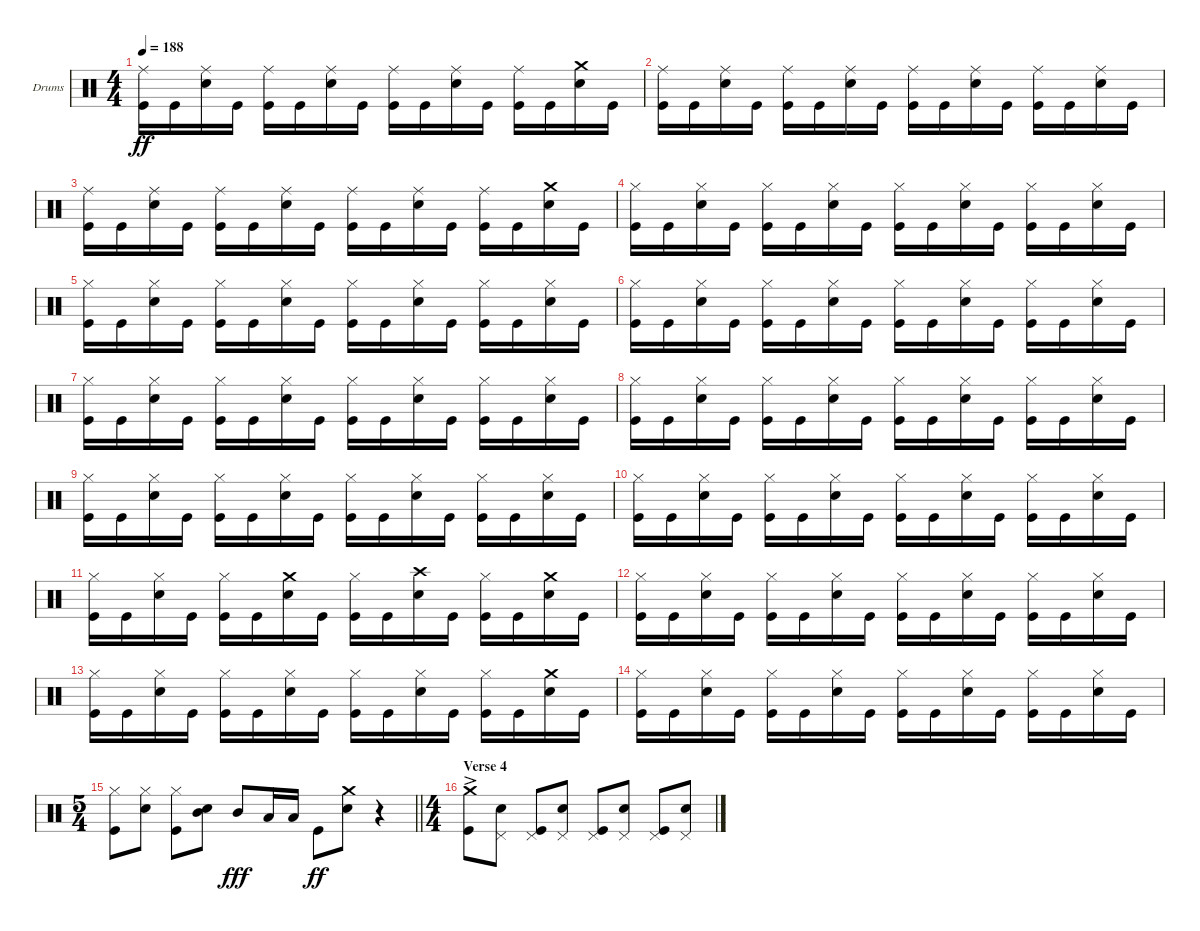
\bracketExtendMode groupsimilarinstruments
\firstSystemTrackNameOrientation horizontal
\otherSystemsTrackNameOrientation horizontal
\track ("Drums" "Drums") {instrument percussion}
\staff {score}
\articulation defaults
\ts (4 4)
\tempo 188
\clef neutral
\ks c
("Kick (hit)" "Ride (middle)").16{dy ff} "Kick (hit)".16 ("Snare (hit) 2" "Ride (middle)").16 "Kick (hit)".16 ("Kick (hit)" "Ride (middle)").16 "Kick (hit)".16 ("Snare (hit) 2" "Ride (middle)").16 "Kick (hit)".16 ("Kick (hit)" "Ride (middle)").16 "Kick (hit)".16 ("Snare (hit) 2" "Ride (middle)").16 "Kick (hit)".16 ("Kick (hit)" "Ride (middle)").16 "Kick (hit)".16 ("Snare (hit) 2" "Crash medium (hit)").16 "Kick (hit)".16 |
("Kick (hit)" "Ride (middle)").16 "Kick (hit)".16 ("Snare (hit) 2" "Ride (middle)").16 "Kick (hit)".16 ("Kick (hit)" "Ride (middle)").16 "Kick (hit)".16 ("Snare (hit) 2" "Ride (middle)").16 "Kick (hit)".16 ("Kick (hit)" "Ride (middle)").16 "Kick (hit)".16 ("Snare (hit) 2" "Ride (middle)").16 "Kick (hit)".16 ("Kick (hit)" "Ride (middle)").16 "Kick (hit)".16 ("Snare (hit) 2" "Ride (middle)").16 "Kick (hit)".16 |
("Kick (hit)" "Ride (middle)").16 "Kick (hit)".16 ("Snare (hit) 2" "Ride (middle)").16 "Kick (hit)".16 ("Kick (hit)" "Ride (middle)").16 "Kick (hit)".16 ("Snare (hit) 2" "Ride (middle)").16 "Kick (hit)".16 ("Kick (hit)" "Ride (middle)").16 "Kick (hit)".16 ("Snare (hit) 2" "Ride (middle)").16 "Kick (hit)".16 ("Kick (hit)" "Ride (middle)").16 "Kick (hit)".16 ("Snare (hit) 2" "Crash medium (hit)").16 "Kick (hit)".16 |
("Kick (hit)" "Hi-Hat (closed)").16 "Kick (hit)".16 ("Snare (hit) 2" "Hi-Hat (closed)").16 "Kick (hit)".16 ("Kick (hit)" "Hi-Hat (closed)").16 "Kick (hit)".16 ("Snare (hit) 2" "Hi-Hat (closed)").16 "Kick (hit)".16 ("Kick (hit)" "Hi-Hat (closed)").16 "Kick (hit)".16 ("Snare (hit) 2" "Hi-Hat (closed)").16 "Kick (hit)".16 ("Kick (hit)" "Hi-Hat (closed)").16 "Kick (hit)".16 ("Snare (hit) 2" "Hi-Hat (closed)").16 "Kick (hit)".16 |
("Kick (hit)" "Hi-Hat (closed)").16 "Kick (hit)".16 ("Snare (hit) 2" "Hi-Hat (closed)").16 "Kick (hit)".16 ("Kick (hit)" "Hi-Hat (closed)").16 "Kick (hit)".16 ("Snare (hit) 2" "Hi-Hat (closed)").16 "Kick (hit)".16 ("Kick (hit)" "Hi-Hat (closed)").16 "Kick (hit)".16 ("Snare (hit) 2" "Hi-Hat (closed)").16 "Kick (hit)".16 ("Kick (hit)" "Hi-Hat (closed)").16 "Kick (hit)".16 ("Snare (hit) 2" "Hi-Hat (closed)").16 "Kick (hit)".16 |
("Kick (hit)" "Hi-Hat (closed)").16 "Kick (hit)".16 ("Snare (hit) 2" "Hi-Hat (closed)").16 "Kick (hit)".16 ("Kick (hit)" "Hi-Hat (closed)").16 "Kick (hit)".16 ("Snare (hit) 2" "Hi-Hat (closed)").16 "Kick (hit)".16 ("Kick (hit)" "Hi-Hat (closed)").16 "Kick (hit)".16 ("Snare (hit) 2" "Hi-Hat (closed)").16 "Kick (hit)".16 ("Kick (hit)" "Hi-Hat (closed)").16 "Kick (hit)".16 ("Snare (hit) 2" "Hi-Hat (closed)").16 "Kick (hit)".16 |
("Kick (hit)" "Hi-Hat (closed)").16 "Kick (hit)".16 ("Snare (hit) 2" "Hi-Hat (closed)").16 "Kick (hit)".16 ("Kick (hit)" "Hi-Hat (closed)").16 "Kick (hit)".16 ("Snare (hit) 2" "Hi-Hat (closed)").16 "Kick (hit)".16 ("Kick (hit)" "Hi-Hat (closed)").16 "Kick (hit)".16 ("Snare (hit) 2" "Hi-Hat (closed)").16 "Kick (hit)".16 ("Kick (hit)" "Hi-Hat (closed)").16 "Kick (hit)".16 ("Snare (hit) 2" "Hi-Hat (closed)").16 "Kick (hit)".16 |
("Kick (hit)" "Hi-Hat (closed)").16 "Kick (hit)".16 ("Snare (hit) 2" "Hi-Hat (closed)").16 "Kick (hit)".16 ("Kick (hit)" "Hi-Hat (closed)").16 "Kick (hit)".16 ("Snare (hit) 2" "Hi-Hat (closed)").16 "Kick (hit)".16 ("Kick (hit)" "Hi-Hat (closed)").16 "Kick (hit)".16 ("Snare (hit) 2" "Hi-Hat (closed)").16 "Kick (hit)".16 ("Kick (hit)" "Hi-Hat (closed)").16 "Kick (hit)".16 ("Snare (hit) 2" "Hi-Hat (closed)").16 "Kick (hit)".16 |
("Kick (hit)" "Hi-Hat (closed)").16 "Kick (hit)".16 ("Snare (hit) 2" "Hi-Hat (closed)").16 "Kick (hit)".16 ("Kick (hit)" "Hi-Hat (closed)").16 "Kick (hit)".16 ("Snare (hit) 2" "Hi-Hat (closed)").16 "Kick (hit)".16 ("Kick (hit)" "Hi-Hat (closed)").16 "Kick (hit)".16 ("Snare (hit) 2" "Hi-Hat (closed)").16 "Kick (hit)".16 ("Kick (hit)" "Hi-Hat (closed)").16 "Kick (hit)".16 ("Snare (hit) 2" "Hi-Hat (closed)").16 "Kick (hit)".16 |
("Kick (hit)" "Hi-Hat (closed)").16 "Kick (hit)".16 ("Snare (hit) 2" "Hi-Hat (closed)").16 "Kick (hit)".16 ("Kick (hit)" "Hi-Hat (closed)").16 "Kick (hit)".16 ("Snare (hit) 2" "Hi-Hat (closed)").16 "Kick (hit)".16 ("Kick (hit)" "Hi-Hat (closed)").16 "Kick (hit)".16 ("Snare (hit) 2" "Hi-Hat (closed)").16 "Kick (hit)".16 ("Kick (hit)" "Hi-Hat (closed)").16 "Kick (hit)".16 ("Snare (hit) 2" "Hi-Hat (closed)").16 "Kick (hit)".16 |
("Kick (hit)" "Hi-Hat (closed)").16 "Kick (hit)".16 ("Snare (hit) 2" "Hi-Hat (closed)").16 "Kick (hit)".16 ("Kick (hit)" "Hi-Hat (closed)").16 "Kick (hit)".16 ("Snare (hit) 2" "Crash medium (hit)").16 "Kick (hit)".16 ("Kick (hit)" "Hi-Hat (closed)").16 "Kick (hit)".16 ("Snare (hit) 2" "Crash high (hit)").16 "Kick (hit)".16 ("Kick (hit)" "Hi-Hat (closed)").16 "Kick (hit)".16 ("Snare (hit) 2" "Crash medium (hit)").16 "Kick (hit)".16 |
("Kick (hit)" "Hi-Hat (closed)").16 "Kick (hit)".16 ("Snare (hit) 2" "Hi-Hat (closed)").16 "Kick (hit)".16 ("Kick (hit)" "Hi-Hat (closed)").16 "Kick (hit)".16 ("Snare (hit) 2" "Hi-Hat (closed)").16 "Kick (hit)".16 ("Kick (hit)" "Hi-Hat (closed)").16 "Kick (hit)".16 ("Snare (hit) 2" "Hi-Hat (closed)").16 "Kick (hit)".16 ("Kick (hit)" "Hi-Hat (closed)").16 "Kick (hit)".16 ("Snare (hit) 2" "Hi-Hat (closed)").16 "Kick (hit)".16 |
("Kick (hit)" "Hi-Hat (closed)").16 "Kick (hit)".16 ("Snare (hit) 2" "Hi-Hat (closed)").16 "Kick (hit)".16 ("Kick (hit)" "Hi-Hat (closed)").16 "Kick (hit)".16 ("Snare (hit) 2" "Hi-Hat (closed)").16 "Kick (hit)".16 ("Kick (hit)" "Hi-Hat (closed)").16 "Kick (hit)".16 ("Snare (hit) 2" "Hi-Hat (closed)").16 "Kick (hit)".16 ("Kick (hit)" "Hi-Hat (closed)").16 "Kick (hit)".16 ("Snare (hit) 2" "Crash medium (hit)").16 "Kick (hit)".16 |
("Kick (hit)" "Hi-Hat (closed)").16 "Kick (hit)".16 ("Snare (hit) 2" "Hi-Hat (closed)").16 "Kick (hit)".16 ("Kick (hit)" "Hi-Hat (closed)").16 "Kick (hit)".16 ("Snare (hit) 2" "Hi-Hat (closed)").16 "Kick (hit)".16 ("Kick (hit)" "Hi-Hat (closed)").16 "Kick (hit)".16 ("Snare (hit) 2" "Hi-Hat (closed)").16 "Kick (hit)".16 ("Kick (hit)" "Hi-Hat (closed)").16 "Kick (hit)".16 ("Snare (hit) 2" "Hi-Hat (closed)").16 "Kick (hit)".16 |
\ts (5 4)
\barLineRight lightlight
("Kick (hit)" "Hi-Hat (closed)").8 ("Snare (hit) 2" "Hi-Hat (closed)").8 ("Kick (hit)" "Hi-Hat (closed)").8 ("Mid Tom (hit)" "Snare (hit) 2").8 "Mid Tom (hit)".8{dy fff} "Low Tom (hit)".16 "Low Tom (hit)".16 "Kick (hit)".8{dy ff} ("Snare (hit) 2" "Crash medium (hit)").8 r.4 |
\ts (4 4)
\section ("" "Verse 4")
("Kick (hit)" "Crash medium (hit)"{ac}).8 ("Snare (hit) 2" "Pedal Hi-Hat (hit)").8 ("Kick (hit)" "Pedal Hi-Hat (hit)").8 ("Snare (hit) 2" "Pedal Hi-Hat (hit)").8 ("Kick (hit)" "Pedal Hi-Hat (hit)").8 ("Snare (hit) 2" "Pedal Hi-Hat (hit)").8 ("Kick (hit)" "Pedal Hi-Hat (hit)").8 ("Snare (hit) 2" "Pedal Hi-Hat (hit)").8
